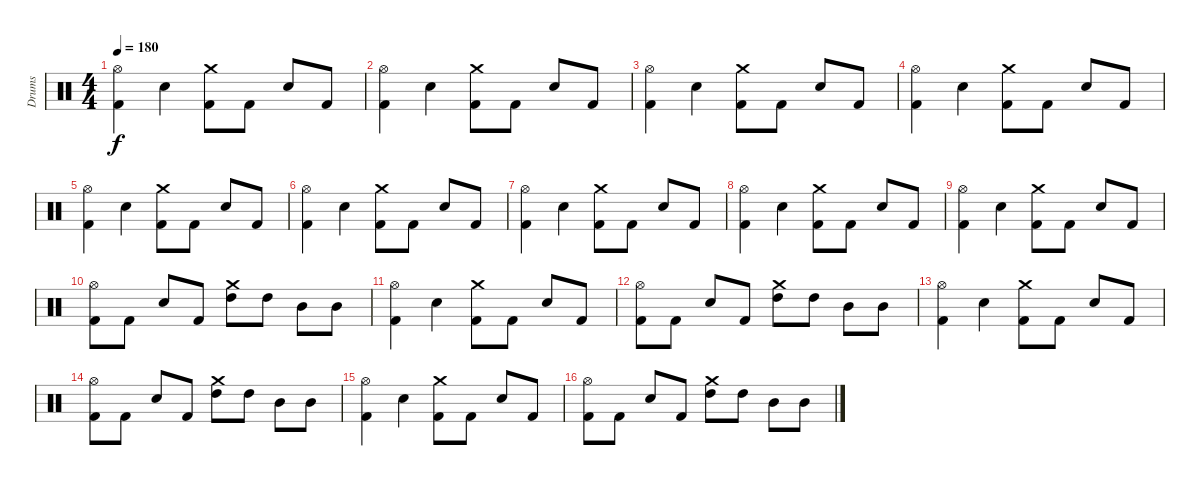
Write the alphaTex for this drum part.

\track ("Drums" "Drums") {instrument percussion}
\staff {score}
\articulation defaults
\ts (4 4)
\tempo 180
\clef neutral
\ks c
("Hi-Hat (open)" "Kick (hit) 2").4{dy f} "Electric Snare (hit)".4 ("Crash medium (hit)" "Kick (hit) 2").8 "Kick (hit) 2".8 "Electric Snare (hit)".8 "Kick (hit) 2".8 |
("Hi-Hat (open)" "Kick (hit) 2").4 "Electric Snare (hit)".4 ("Crash medium (hit)" "Kick (hit) 2").8 "Kick (hit) 2".8 "Electric Snare (hit)".8 "Kick (hit) 2".8 |
("Hi-Hat (open)" "Kick (hit) 2").4 "Electric Snare (hit)".4 ("Crash medium (hit)" "Kick (hit) 2").8 "Kick (hit) 2".8 "Electric Snare (hit)".8 "Kick (hit) 2".8 |
("Hi-Hat (open)" "Kick (hit) 2").4 "Electric Snare (hit)".4 ("Crash medium (hit)" "Kick (hit) 2").8 "Kick (hit) 2".8 "Electric Snare (hit)".8 "Kick (hit) 2".8 |
("Hi-Hat (open)" "Kick (hit) 2").4 "Electric Snare (hit)".4 ("Crash medium (hit)" "Kick (hit) 2").8 "Kick (hit) 2".8 "Electric Snare (hit)".8 "Kick (hit) 2".8 |
("Hi-Hat (open)" "Kick (hit) 2").4 "Electric Snare (hit)".4 ("Crash medium (hit)" "Kick (hit) 2").8 "Kick (hit) 2".8 "Electric Snare (hit)".8 "Kick (hit) 2".8 |
("Hi-Hat (open)" "Kick (hit) 2").4 "Electric Snare (hit)".4 ("Crash medium (hit)" "Kick (hit) 2").8 "Kick (hit) 2".8 "Electric Snare (hit)".8 "Kick (hit) 2".8 |
("Hi-Hat (open)" "Kick (hit) 2").4 "Electric Snare (hit)".4 ("Crash medium (hit)" "Kick (hit) 2").8 "Kick (hit) 2".8 "Electric Snare (hit)".8 "Kick (hit) 2".8 |
("Hi-Hat (open)" "Kick (hit) 2").4 "Electric Snare (hit)".4 ("Crash medium (hit)" "Kick (hit) 2").8 "Kick (hit) 2".8 "Electric Snare (hit)".8 "Kick (hit) 2".8 |
("Kick (hit) 2" "Hi-Hat (open)").8 "Kick (hit) 2".8 "Electric Snare (hit)".8 "Kick (hit) 2".8 ("Crash medium (hit)" "High Tom (hit)").8 "High Tom (hit)".8 "Mid Tom (hit)".8 "Mid Tom (hit)".8 |
("Hi-Hat (open)" "Kick (hit) 2").4 "Electric Snare (hit)".4 ("Crash medium (hit)" "Kick (hit) 2").8 "Kick (hit) 2".8 "Electric Snare (hit)".8 "Kick (hit) 2".8 |
("Kick (hit) 2" "Hi-Hat (open)").8 "Kick (hit) 2".8 "Electric Snare (hit)".8 "Kick (hit) 2".8 ("Crash medium (hit)" "High Tom (hit)").8 "High Tom (hit)".8 "Mid Tom (hit)".8 "Mid Tom (hit)".8 |
("Hi-Hat (open)" "Kick (hit) 2").4 "Electric Snare (hit)".4 ("Crash medium (hit)" "Kick (hit) 2").8 "Kick (hit) 2".8 "Electric Snare (hit)".8 "Kick (hit) 2".8 |
("Kick (hit) 2" "Hi-Hat (open)").8 "Kick (hit) 2".8 "Electric Snare (hit)".8 "Kick (hit) 2".8 ("Crash medium (hit)" "High Tom (hit)").8 "High Tom (hit)".8 "Mid Tom (hit)".8 "Mid Tom (hit)".8 |
("Hi-Hat (open)" "Kick (hit) 2").4 "Electric Snare (hit)".4 ("Crash medium (hit)" "Kick (hit) 2").8 "Kick (hit) 2".8 "Electric Snare (hit)".8 "Kick (hit) 2".8 |
("Kick (hit) 2" "Hi-Hat (open)").8 "Kick (hit) 2".8 "Electric Snare (hit)".8 "Kick (hit) 2".8 ("Crash medium (hit)" "High Tom (hit)").8 "High Tom (hit)".8 "Mid Tom (hit)".8 "Mid Tom (hit)".8
